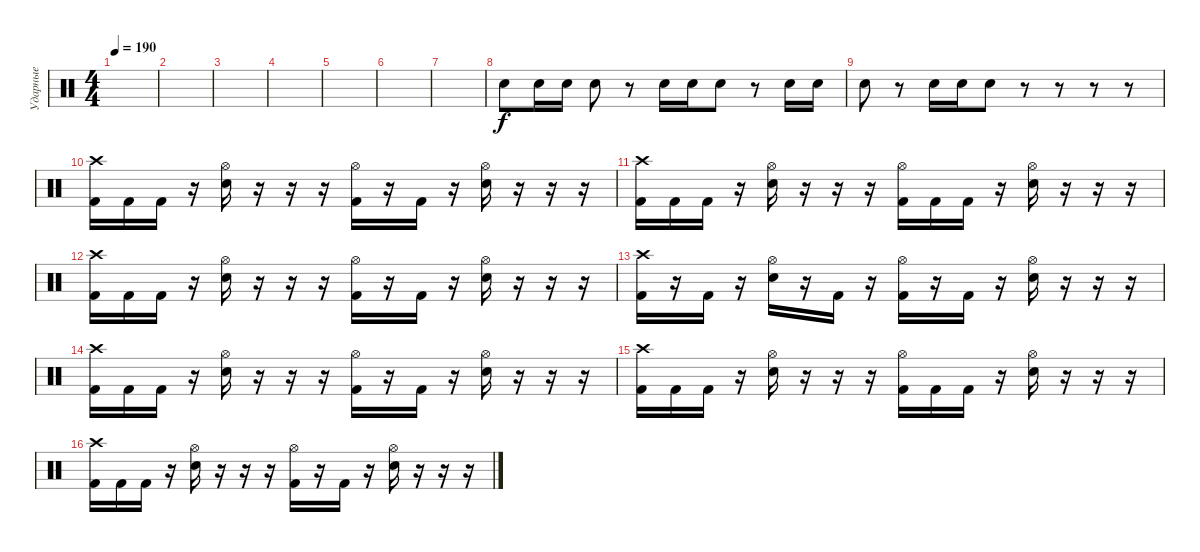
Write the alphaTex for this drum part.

\track ("Ударные" "Ударные") {instrument percussion}
\staff {score}
\articulation defaults
\ts (4 4)
\tempo 190
\clef neutral
\ks c
|
|
|
|
|
|
|
"Electric Snare (hit)".8 "Electric Snare (hit)".16 "Electric Snare (hit)".16 "Electric Snare (hit)".8 r.8 "Electric Snare (hit)".16 "Electric Snare (hit)".16 "Electric Snare (hit)".8 r.8 "Electric Snare (hit)".16 "Electric Snare (hit)".16 |
"Electric Snare (hit)".8 r.8 "Electric Snare (hit)".16 "Electric Snare (hit)".16 "Electric Snare (hit)".8 r.8 r.8 r.8 r.8 |
("Crash high (hit)" "Kick (hit) 2").16 "Kick (hit) 2".16 "Kick (hit) 2".16 r.16 ("Hi-Hat (open)" "Electric Snare (hit)").16 r.16 r.16 r.16 ("Hi-Hat (open)" "Kick (hit) 2").16 r.16 "Kick (hit) 2".16 r.16 ("Hi-Hat (open)" "Electric Snare (hit)").16 r.16 r.16 r.16 |
("Crash high (hit)" "Kick (hit) 2").16 "Kick (hit) 2".16 "Kick (hit) 2".16 r.16 ("Hi-Hat (open)" "Electric Snare (hit)").16 r.16 r.16 r.16 ("Hi-Hat (open)" "Kick (hit) 2").16 "Kick (hit) 2".16 "Kick (hit) 2".16 r.16 ("Hi-Hat (open)" "Electric Snare (hit)").16 r.16 r.16 r.16 |
("Crash high (hit)" "Kick (hit) 2").16 "Kick (hit) 2".16 "Kick (hit) 2".16 r.16 ("Hi-Hat (open)" "Electric Snare (hit)").16 r.16 r.16 r.16 ("Hi-Hat (open)" "Kick (hit) 2").16 r.16 "Kick (hit) 2".16 r.16 ("Hi-Hat (open)" "Electric Snare (hit)").16 r.16 r.16 r.16 |
("Crash high (hit)" "Kick (hit) 2").16 r.16 "Kick (hit) 2".16 r.16 ("Hi-Hat (open)" "Electric Snare (hit)").16 r.16 "Kick (hit) 2".16 r.16 ("Hi-Hat (open)" "Kick (hit) 2").16 r.16 "Kick (hit) 2".16 r.16 ("Hi-Hat (open)" "Electric Snare (hit)").16 r.16 r.16 r.16 |
("Crash high (hit)" "Kick (hit) 2").16 "Kick (hit) 2".16 "Kick (hit) 2".16 r.16 ("Hi-Hat (open)" "Electric Snare (hit)").16 r.16 r.16 r.16 ("Hi-Hat (open)" "Kick (hit) 2").16 r.16 "Kick (hit) 2".16 r.16 ("Hi-Hat (open)" "Electric Snare (hit)").16 r.16 r.16 r.16 |
("Crash high (hit)" "Kick (hit) 2").16 "Kick (hit) 2".16 "Kick (hit) 2".16 r.16 ("Hi-Hat (open)" "Electric Snare (hit)").16 r.16 r.16 r.16 ("Hi-Hat (open)" "Kick (hit) 2").16 "Kick (hit) 2".16 "Kick (hit) 2".16 r.16 ("Hi-Hat (open)" "Electric Snare (hit)").16 r.16 r.16 r.16 |
("Crash high (hit)" "Kick (hit) 2").16 "Kick (hit) 2".16 "Kick (hit) 2".16 r.16 ("Hi-Hat (open)" "Electric Snare (hit)").16 r.16 r.16 r.16 ("Hi-Hat (open)" "Kick (hit) 2").16 r.16 "Kick (hit) 2".16 r.16 ("Hi-Hat (open)" "Electric Snare (hit)").16 r.16 r.16 r.16
